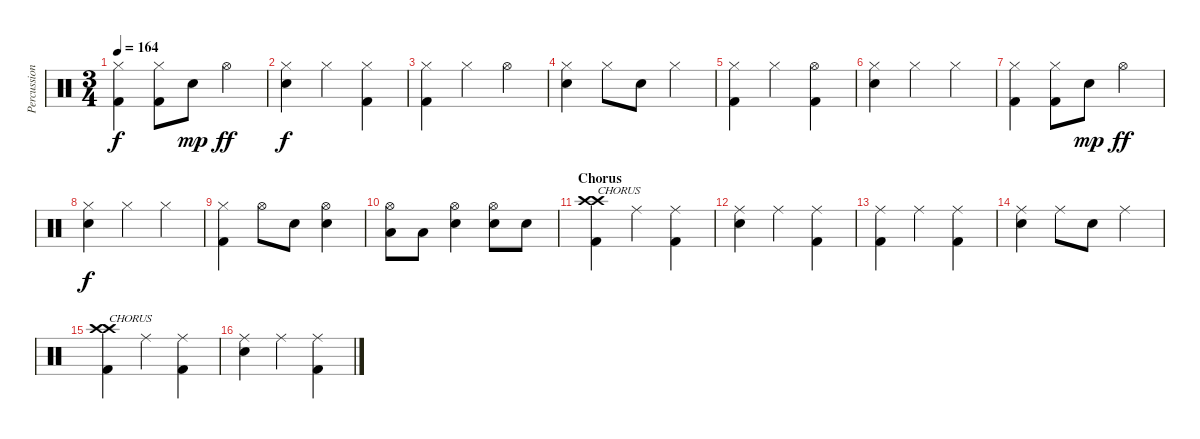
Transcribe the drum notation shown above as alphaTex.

\track ("Percussion" "Percussion") {instrument percussion}
\staff {score}
\articulation defaults
\ts (3 4)
\tempo 164
\clef neutral
\ks c
("Hi-Hat (closed)" "Kick (hit) 2").4{dy f} ("Hi-Hat (closed)" "Kick (hit) 2").8 "Snare (hit) 2".8{dy mp} "Hi-Hat (open)".4{dy ff} |
("Hi-Hat (closed)" "Snare (hit) 2").4{dy f} "Hi-Hat (closed)".4 ("Hi-Hat (closed)" "Kick (hit) 2").4 |
("Hi-Hat (closed)" "Kick (hit) 2").4 "Hi-Hat (closed)".4 "Hi-Hat (open)".4 |
("Hi-Hat (closed)" "Snare (hit) 2").4 "Hi-Hat (closed)".8 "Snare (hit) 2".8 "Hi-Hat (closed)".4 |
("Hi-Hat (closed)" "Kick (hit) 2").4 "Hi-Hat (closed)".4 ("Hi-Hat (open)" "Kick (hit) 2").4 |
("Hi-Hat (closed)" "Snare (hit) 2").4 "Hi-Hat (closed)".4 "Hi-Hat (closed)".4 |
("Hi-Hat (closed)" "Kick (hit) 2").4 ("Hi-Hat (closed)" "Kick (hit) 2").8 "Snare (hit) 2".8{dy mp} "Hi-Hat (open)".4{dy ff} |
("Hi-Hat (closed)" "Snare (hit) 2").4{dy f} "Hi-Hat (closed)".4 "Hi-Hat (closed)".4 |
("Hi-Hat (closed)" "Kick (hit) 2").4 "Hi-Hat (open)".8 "Snare (hit) 2".8 ("Hi-Hat (open)" "Snare (hit) 2").4 |
("Hi-Hat (open)" "Low Tom (hit)").8 "Low Tom (hit)".8 ("Hi-Hat (open)" "Snare (hit) 2").4 ("Hi-Hat (open)" "Snare (hit) 2").8 "Snare (hit) 2".8 |
\section ("" "Chorus")
("Crash high (hit)" "Crash high (hit)" "Kick (hit) 2").4{txt "CHORUS"} "Ride (middle)".4 ("Ride (middle)" "Kick (hit) 2").4 |
("Ride (middle)" "Snare (hit) 2").4 "Ride (middle)".4 ("Ride (middle)" "Kick (hit) 2").4 |
("Ride (middle)" "Kick (hit) 2").4 "Ride (middle)".4 ("Ride (middle)" "Kick (hit) 2").4 |
("Ride (middle)" "Snare (hit) 2").4 "Ride (middle)".8 "Snare (hit) 2".8 "Ride (middle)".4 |
("Crash high (hit)" "Crash high (hit)" "Kick (hit) 2").4{txt "CHORUS"} "Ride (middle)".4 ("Ride (middle)" "Kick (hit) 2").4 |
("Ride (middle)" "Snare (hit) 2").4 "Ride (middle)".4 ("Ride (middle)" "Kick (hit) 2").4
